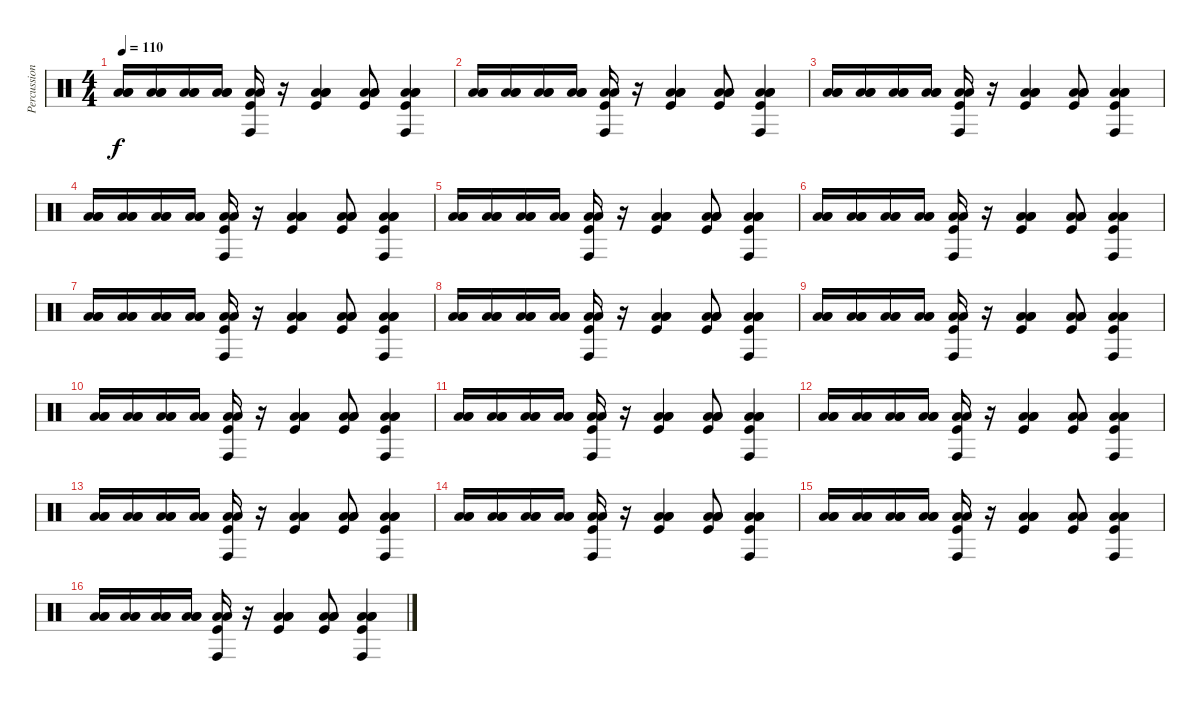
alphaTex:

\track ("Percussion 2" "Percussion") {instrument percussion}
\staff {score}
\articulation defaults
\ts (4 4)
\tempo 110
\clef neutral
\ks c
("Low Floor Tom (hit)" "Low Floor Tom (hit)" "Low Tom (hit)").16{dy f} ("Low Floor Tom (hit)" "Low Floor Tom (hit)" "Low Tom (hit)").16 ("Low Floor Tom (hit)" "Low Floor Tom (hit)" "Low Tom (hit)").16 ("Low Floor Tom (hit)" "Low Floor Tom (hit)" "Low Tom (hit)").16 ("Low Floor Tom (hit)" "Low Floor Tom (hit)" "Conga high (hit)" "Kick (hit)").16 r.16 ("Low Floor Tom (hit)" "Low Floor Tom (hit)" "Low Tom (hit)" "Kick (hit)").4 ("Low Floor Tom (hit)" "Low Tom (hit)" "Low Floor Tom (hit)" "Kick (hit)").8 ("Low Floor Tom (hit)" "Low Tom (hit)" "Low Floor Tom (hit)" "Conga high (hit)" "Kick (hit)").4 |
("Low Floor Tom (hit)" "Low Floor Tom (hit)" "Low Tom (hit)").16 ("Low Floor Tom (hit)" "Low Floor Tom (hit)" "Low Tom (hit)").16 ("Low Floor Tom (hit)" "Low Floor Tom (hit)" "Low Tom (hit)").16 ("Low Floor Tom (hit)" "Low Floor Tom (hit)" "Low Tom (hit)").16 ("Low Floor Tom (hit)" "Low Floor Tom (hit)" "Conga high (hit)" "Kick (hit)").16 r.16 ("Low Floor Tom (hit)" "Low Floor Tom (hit)" "Low Tom (hit)" "Kick (hit)").4 ("Low Floor Tom (hit)" "Low Tom (hit)" "Low Floor Tom (hit)" "Kick (hit)").8 ("Low Floor Tom (hit)" "Low Tom (hit)" "Low Floor Tom (hit)" "Conga high (hit)" "Kick (hit)").4 |
("Low Floor Tom (hit)" "Low Floor Tom (hit)" "Low Tom (hit)").16 ("Low Floor Tom (hit)" "Low Floor Tom (hit)" "Low Tom (hit)").16 ("Low Floor Tom (hit)" "Low Floor Tom (hit)" "Low Tom (hit)").16 ("Low Floor Tom (hit)" "Low Floor Tom (hit)" "Low Tom (hit)").16 ("Low Floor Tom (hit)" "Low Floor Tom (hit)" "Conga high (hit)" "Kick (hit)").16 r.16 ("Low Floor Tom (hit)" "Low Floor Tom (hit)" "Low Tom (hit)" "Kick (hit)").4 ("Low Floor Tom (hit)" "Low Tom (hit)" "Low Floor Tom (hit)" "Kick (hit)").8 ("Low Floor Tom (hit)" "Low Tom (hit)" "Low Floor Tom (hit)" "Conga high (hit)" "Kick (hit)").4 |
("Low Floor Tom (hit)" "Low Floor Tom (hit)" "Low Tom (hit)").16 ("Low Floor Tom (hit)" "Low Floor Tom (hit)" "Low Tom (hit)").16 ("Low Floor Tom (hit)" "Low Floor Tom (hit)" "Low Tom (hit)").16 ("Low Floor Tom (hit)" "Low Floor Tom (hit)" "Low Tom (hit)").16 ("Low Floor Tom (hit)" "Low Floor Tom (hit)" "Conga high (hit)" "Kick (hit)").16 r.16 ("Low Floor Tom (hit)" "Low Floor Tom (hit)" "Low Tom (hit)" "Kick (hit)").4 ("Low Floor Tom (hit)" "Low Tom (hit)" "Low Floor Tom (hit)" "Kick (hit)").8 ("Low Floor Tom (hit)" "Low Tom (hit)" "Low Floor Tom (hit)" "Conga high (hit)" "Kick (hit)").4 |
("Low Floor Tom (hit)" "Low Floor Tom (hit)" "Low Tom (hit)").16 ("Low Floor Tom (hit)" "Low Floor Tom (hit)" "Low Tom (hit)").16 ("Low Floor Tom (hit)" "Low Floor Tom (hit)" "Low Tom (hit)").16 ("Low Floor Tom (hit)" "Low Floor Tom (hit)" "Low Tom (hit)").16 ("Low Floor Tom (hit)" "Low Floor Tom (hit)" "Conga high (hit)" "Kick (hit)").16 r.16 ("Low Floor Tom (hit)" "Low Floor Tom (hit)" "Low Tom (hit)" "Kick (hit)").4 ("Low Floor Tom (hit)" "Low Tom (hit)" "Low Floor Tom (hit)" "Kick (hit)").8 ("Low Floor Tom (hit)" "Low Tom (hit)" "Low Floor Tom (hit)" "Conga high (hit)" "Kick (hit)").4 |
("Low Floor Tom (hit)" "Low Floor Tom (hit)" "Low Tom (hit)").16 ("Low Floor Tom (hit)" "Low Floor Tom (hit)" "Low Tom (hit)").16 ("Low Floor Tom (hit)" "Low Floor Tom (hit)" "Low Tom (hit)").16 ("Low Floor Tom (hit)" "Low Floor Tom (hit)" "Low Tom (hit)").16 ("Low Floor Tom (hit)" "Low Floor Tom (hit)" "Conga high (hit)" "Kick (hit)").16 r.16 ("Low Floor Tom (hit)" "Low Floor Tom (hit)" "Low Tom (hit)" "Kick (hit)").4 ("Low Floor Tom (hit)" "Low Tom (hit)" "Low Floor Tom (hit)" "Kick (hit)").8 ("Low Floor Tom (hit)" "Low Tom (hit)" "Low Floor Tom (hit)" "Conga high (hit)" "Kick (hit)").4 |
("Low Floor Tom (hit)" "Low Floor Tom (hit)" "Low Tom (hit)").16 ("Low Floor Tom (hit)" "Low Floor Tom (hit)" "Low Tom (hit)").16 ("Low Floor Tom (hit)" "Low Floor Tom (hit)" "Low Tom (hit)").16 ("Low Floor Tom (hit)" "Low Floor Tom (hit)" "Low Tom (hit)").16 ("Low Floor Tom (hit)" "Low Floor Tom (hit)" "Conga high (hit)" "Kick (hit)").16 r.16 ("Low Floor Tom (hit)" "Low Floor Tom (hit)" "Low Tom (hit)" "Kick (hit)").4 ("Low Floor Tom (hit)" "Low Tom (hit)" "Low Floor Tom (hit)" "Kick (hit)").8 ("Low Floor Tom (hit)" "Low Tom (hit)" "Low Floor Tom (hit)" "Conga high (hit)" "Kick (hit)").4 |
("Low Floor Tom (hit)" "Low Floor Tom (hit)" "Low Tom (hit)").16 ("Low Floor Tom (hit)" "Low Floor Tom (hit)" "Low Tom (hit)").16 ("Low Floor Tom (hit)" "Low Floor Tom (hit)" "Low Tom (hit)").16 ("Low Floor Tom (hit)" "Low Floor Tom (hit)" "Low Tom (hit)").16 ("Low Floor Tom (hit)" "Low Floor Tom (hit)" "Conga high (hit)" "Kick (hit)").16 r.16 ("Low Floor Tom (hit)" "Low Floor Tom (hit)" "Low Tom (hit)" "Kick (hit)").4 ("Low Floor Tom (hit)" "Low Tom (hit)" "Low Floor Tom (hit)" "Kick (hit)").8 ("Low Floor Tom (hit)" "Low Tom (hit)" "Low Floor Tom (hit)" "Conga high (hit)" "Kick (hit)").4 |
("Low Floor Tom (hit)" "Low Floor Tom (hit)" "Low Tom (hit)").16 ("Low Floor Tom (hit)" "Low Floor Tom (hit)" "Low Tom (hit)").16 ("Low Floor Tom (hit)" "Low Floor Tom (hit)" "Low Tom (hit)").16 ("Low Floor Tom (hit)" "Low Floor Tom (hit)" "Low Tom (hit)").16 ("Low Floor Tom (hit)" "Low Floor Tom (hit)" "Conga high (hit)" "Kick (hit)").16 r.16 ("Low Floor Tom (hit)" "Low Floor Tom (hit)" "Low Tom (hit)" "Kick (hit)").4 ("Low Floor Tom (hit)" "Low Tom (hit)" "Low Floor Tom (hit)" "Kick (hit)").8 ("Low Floor Tom (hit)" "Low Tom (hit)" "Low Floor Tom (hit)" "Conga high (hit)" "Kick (hit)").4 |
("Low Floor Tom (hit)" "Low Floor Tom (hit)" "Low Tom (hit)").16 ("Low Floor Tom (hit)" "Low Floor Tom (hit)" "Low Tom (hit)").16 ("Low Floor Tom (hit)" "Low Floor Tom (hit)" "Low Tom (hit)").16 ("Low Floor Tom (hit)" "Low Floor Tom (hit)" "Low Tom (hit)").16 ("Low Floor Tom (hit)" "Low Floor Tom (hit)" "Conga high (hit)" "Kick (hit)").16 r.16 ("Low Floor Tom (hit)" "Low Floor Tom (hit)" "Low Tom (hit)" "Kick (hit)").4 ("Low Floor Tom (hit)" "Low Tom (hit)" "Low Floor Tom (hit)" "Kick (hit)").8 ("Low Floor Tom (hit)" "Low Tom (hit)" "Low Floor Tom (hit)" "Conga high (hit)" "Kick (hit)").4 |
("Low Floor Tom (hit)" "Low Floor Tom (hit)" "Low Tom (hit)").16 ("Low Floor Tom (hit)" "Low Floor Tom (hit)" "Low Tom (hit)").16 ("Low Floor Tom (hit)" "Low Floor Tom (hit)" "Low Tom (hit)").16 ("Low Floor Tom (hit)" "Low Floor Tom (hit)" "Low Tom (hit)").16 ("Low Floor Tom (hit)" "Low Floor Tom (hit)" "Conga high (hit)" "Kick (hit)").16 r.16 ("Low Floor Tom (hit)" "Low Floor Tom (hit)" "Low Tom (hit)" "Kick (hit)").4 ("Low Floor Tom (hit)" "Low Tom (hit)" "Low Floor Tom (hit)" "Kick (hit)").8 ("Low Floor Tom (hit)" "Low Tom (hit)" "Low Floor Tom (hit)" "Conga high (hit)" "Kick (hit)").4 |
("Low Floor Tom (hit)" "Low Floor Tom (hit)" "Low Tom (hit)").16 ("Low Floor Tom (hit)" "Low Floor Tom (hit)" "Low Tom (hit)").16 ("Low Floor Tom (hit)" "Low Floor Tom (hit)" "Low Tom (hit)").16 ("Low Floor Tom (hit)" "Low Floor Tom (hit)" "Low Tom (hit)").16 ("Low Floor Tom (hit)" "Low Floor Tom (hit)" "Conga high (hit)" "Kick (hit)").16 r.16 ("Low Floor Tom (hit)" "Low Floor Tom (hit)" "Low Tom (hit)" "Kick (hit)").4 ("Low Floor Tom (hit)" "Low Tom (hit)" "Low Floor Tom (hit)" "Kick (hit)").8 ("Low Floor Tom (hit)" "Low Tom (hit)" "Low Floor Tom (hit)" "Conga high (hit)" "Kick (hit)").4 |
("Low Floor Tom (hit)" "Low Floor Tom (hit)" "Low Tom (hit)").16 ("Low Floor Tom (hit)" "Low Floor Tom (hit)" "Low Tom (hit)").16 ("Low Floor Tom (hit)" "Low Floor Tom (hit)" "Low Tom (hit)").16 ("Low Floor Tom (hit)" "Low Floor Tom (hit)" "Low Tom (hit)").16 ("Low Floor Tom (hit)" "Low Floor Tom (hit)" "Conga high (hit)" "Kick (hit)").16 r.16 ("Low Floor Tom (hit)" "Low Floor Tom (hit)" "Low Tom (hit)" "Kick (hit)").4 ("Low Floor Tom (hit)" "Low Tom (hit)" "Low Floor Tom (hit)" "Kick (hit)").8 ("Low Floor Tom (hit)" "Low Tom (hit)" "Low Floor Tom (hit)" "Conga high (hit)" "Kick (hit)").4 |
("Low Floor Tom (hit)" "Low Floor Tom (hit)" "Low Tom (hit)").16 ("Low Floor Tom (hit)" "Low Floor Tom (hit)" "Low Tom (hit)").16 ("Low Floor Tom (hit)" "Low Floor Tom (hit)" "Low Tom (hit)").16 ("Low Floor Tom (hit)" "Low Floor Tom (hit)" "Low Tom (hit)").16 ("Low Floor Tom (hit)" "Low Floor Tom (hit)" "Conga high (hit)" "Kick (hit)").16 r.16 ("Low Floor Tom (hit)" "Low Floor Tom (hit)" "Low Tom (hit)" "Kick (hit)").4 ("Low Floor Tom (hit)" "Low Tom (hit)" "Low Floor Tom (hit)" "Kick (hit)").8 ("Low Floor Tom (hit)" "Low Tom (hit)" "Low Floor Tom (hit)" "Conga high (hit)" "Kick (hit)").4 |
("Low Floor Tom (hit)" "Low Floor Tom (hit)" "Low Tom (hit)").16 ("Low Floor Tom (hit)" "Low Floor Tom (hit)" "Low Tom (hit)").16 ("Low Floor Tom (hit)" "Low Floor Tom (hit)" "Low Tom (hit)").16 ("Low Floor Tom (hit)" "Low Floor Tom (hit)" "Low Tom (hit)").16 ("Low Floor Tom (hit)" "Low Floor Tom (hit)" "Conga high (hit)" "Kick (hit)").16 r.16 ("Low Floor Tom (hit)" "Low Floor Tom (hit)" "Low Tom (hit)" "Kick (hit)").4 ("Low Floor Tom (hit)" "Low Tom (hit)" "Low Floor Tom (hit)" "Kick (hit)").8 ("Low Floor Tom (hit)" "Low Tom (hit)" "Low Floor Tom (hit)" "Conga high (hit)" "Kick (hit)").4 |
("Low Floor Tom (hit)" "Low Floor Tom (hit)" "Low Tom (hit)").16 ("Low Floor Tom (hit)" "Low Floor Tom (hit)" "Low Tom (hit)").16 ("Low Floor Tom (hit)" "Low Floor Tom (hit)" "Low Tom (hit)").16 ("Low Floor Tom (hit)" "Low Floor Tom (hit)" "Low Tom (hit)").16 ("Low Floor Tom (hit)" "Low Floor Tom (hit)" "Conga high (hit)" "Kick (hit)").16 r.16 ("Low Floor Tom (hit)" "Low Floor Tom (hit)" "Low Tom (hit)" "Kick (hit)").4 ("Low Floor Tom (hit)" "Low Tom (hit)" "Low Floor Tom (hit)" "Kick (hit)").8 ("Low Floor Tom (hit)" "Low Tom (hit)" "Low Floor Tom (hit)" "Conga high (hit)" "Kick (hit)").4
